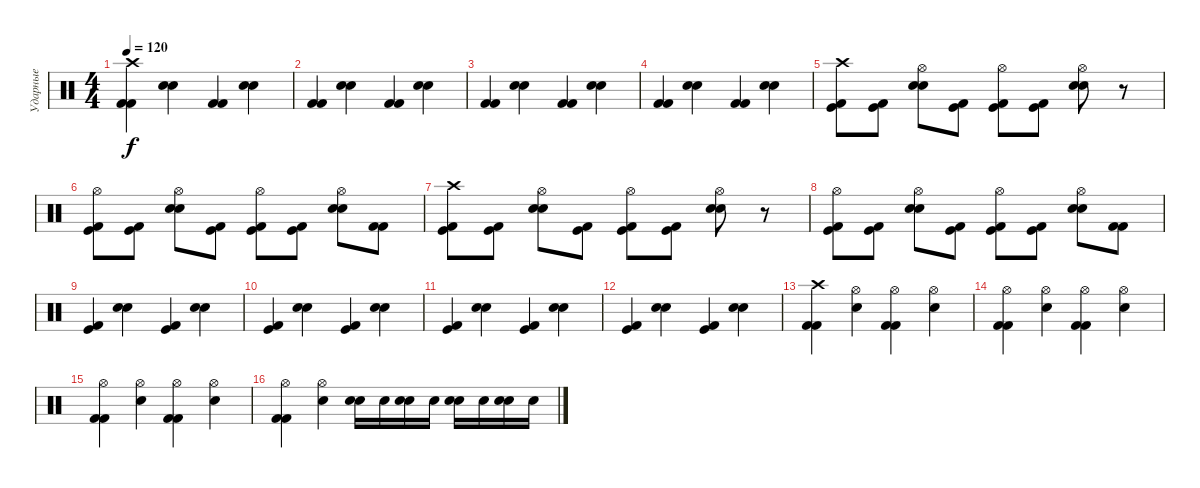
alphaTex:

\track ("Ударные" "Ударные") {instrument percussion}
\staff {score}
\articulation defaults
\ts (4 4)
\tempo 120
\clef neutral
\ks c
("Crash high (hit)" "Kick (hit) 2" "Kick (hit) 2").4{dy f} ("Electric Snare (hit)" "Electric Snare (hit)").4 ("Kick (hit) 2" "Kick (hit) 2").4 ("Electric Snare (hit)" "Electric Snare (hit)").4 |
("Kick (hit) 2" "Kick (hit) 2").4 ("Electric Snare (hit)" "Electric Snare (hit)").4 ("Kick (hit) 2" "Kick (hit) 2").4 ("Electric Snare (hit)" "Electric Snare (hit)").4 |
("Kick (hit) 2" "Kick (hit) 2").4 ("Electric Snare (hit)" "Electric Snare (hit)").4 ("Kick (hit) 2" "Kick (hit) 2").4 ("Electric Snare (hit)" "Electric Snare (hit)").4 |
("Kick (hit) 2" "Kick (hit) 2").4 ("Electric Snare (hit)" "Electric Snare (hit)").4 ("Kick (hit) 2" "Kick (hit) 2").4 ("Electric Snare (hit)" "Electric Snare (hit)").4 |
("Kick (hit) 2" "Kick (hit)" "Crash high (hit)").8 ("Kick (hit) 2" "Kick (hit)").8 ("Electric Snare (hit)" "Electric Snare (hit)" "Hi-Hat (open)").8 ("Kick (hit)" "Kick (hit) 2").8 ("Kick (hit) 2" "Kick (hit)" "Hi-Hat (open)").8 ("Kick (hit) 2" "Kick (hit)").8 ("Electric Snare (hit)" "Electric Snare (hit)" "Hi-Hat (open)").8 r.8 |
("Kick (hit) 2" "Kick (hit)" "Hi-Hat (open)").8 ("Kick (hit) 2" "Kick (hit)").8 ("Electric Snare (hit)" "Electric Snare (hit)" "Hi-Hat (open)").8 ("Kick (hit)" "Kick (hit) 2").8 ("Kick (hit) 2" "Kick (hit)" "Hi-Hat (open)").8 ("Kick (hit) 2" "Kick (hit)").8 ("Electric Snare (hit)" "Electric Snare (hit)" "Hi-Hat (open)").8 ("Kick (hit) 2" "Kick (hit) 2").8 |
("Kick (hit) 2" "Kick (hit)" "Crash high (hit)").8 ("Kick (hit) 2" "Kick (hit)").8 ("Electric Snare (hit)" "Electric Snare (hit)" "Hi-Hat (open)").8 ("Kick (hit)" "Kick (hit) 2").8 ("Kick (hit) 2" "Kick (hit)" "Hi-Hat (open)").8 ("Kick (hit) 2" "Kick (hit)").8 ("Electric Snare (hit)" "Electric Snare (hit)" "Hi-Hat (open)").8 r.8 |
("Kick (hit) 2" "Kick (hit)" "Hi-Hat (open)").8 ("Kick (hit) 2" "Kick (hit)").8 ("Electric Snare (hit)" "Electric Snare (hit)" "Hi-Hat (open)").8 ("Kick (hit)" "Kick (hit) 2").8 ("Kick (hit) 2" "Kick (hit)" "Hi-Hat (open)").8 ("Kick (hit) 2" "Kick (hit)").8 ("Electric Snare (hit)" "Electric Snare (hit)" "Hi-Hat (open)").8 ("Kick (hit) 2" "Kick (hit) 2").8 |
("Kick (hit) 2" "Kick (hit)").4 ("Electric Snare (hit)" "Electric Snare (hit)").4 ("Kick (hit) 2" "Kick (hit)").4 ("Electric Snare (hit)" "Electric Snare (hit)").4 |
("Kick (hit) 2" "Kick (hit)").4 ("Electric Snare (hit)" "Electric Snare (hit)").4 ("Kick (hit) 2" "Kick (hit)").4 ("Electric Snare (hit)" "Electric Snare (hit)").4 |
("Kick (hit) 2" "Kick (hit)").4 ("Electric Snare (hit)" "Electric Snare (hit)").4 ("Kick (hit) 2" "Kick (hit)").4 ("Electric Snare (hit)" "Electric Snare (hit)").4 |
("Kick (hit) 2" "Kick (hit)").4 ("Electric Snare (hit)" "Electric Snare (hit)").4 ("Kick (hit) 2" "Kick (hit)").4 ("Electric Snare (hit)" "Electric Snare (hit)").4 |
("Crash high (hit)" "Kick (hit) 2" "Kick (hit) 2").4 ("Snare (hit) 2" "Hi-Hat (open)").4 ("Hi-Hat (open)" "Kick (hit) 2" "Kick (hit) 2").4 ("Snare (hit) 2" "Hi-Hat (open)").4 |
("Hi-Hat (open)" "Kick (hit) 2" "Kick (hit) 2").4 ("Snare (hit) 2" "Hi-Hat (open)").4 ("Hi-Hat (open)" "Kick (hit) 2" "Kick (hit) 2").4 ("Snare (hit) 2" "Hi-Hat (open)").4 |
("Hi-Hat (open)" "Kick (hit) 2" "Kick (hit) 2").4 ("Snare (hit) 2" "Hi-Hat (open)").4 ("Hi-Hat (open)" "Kick (hit) 2" "Kick (hit) 2").4 ("Snare (hit) 2" "Hi-Hat (open)").4 |
("Hi-Hat (open)" "Kick (hit) 2" "Kick (hit) 2").4 ("Hi-Hat (open)" "Snare (hit) 2").4 ("Snare (hit) 2" "Electric Snare (hit)").16 "Snare (hit) 2".16 ("Snare (hit) 2" "Electric Snare (hit)").16 "Snare (hit) 2".16 ("Snare (hit) 2" "Electric Snare (hit)").16 "Snare (hit) 2".16 ("Snare (hit) 2" "Electric Snare (hit)").16 "Snare (hit) 2".16
